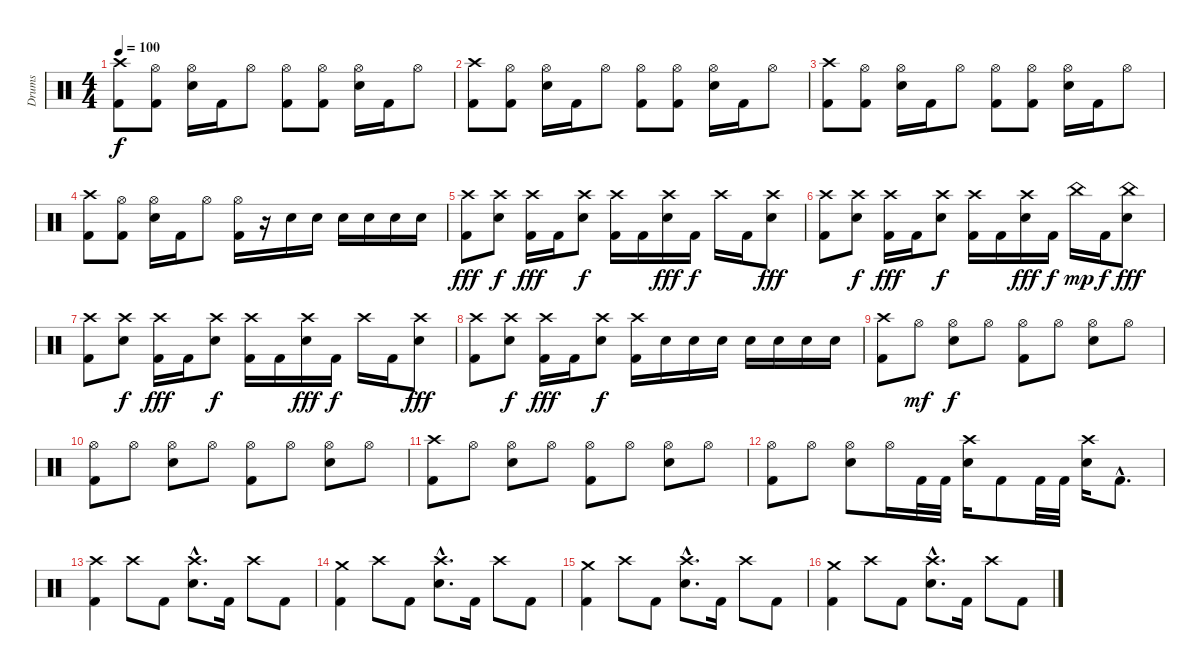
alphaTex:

\track ("Drums" "Drums") {instrument percussion}
\staff {score}
\articulation defaults
\ts (4 4)
\tempo 100
\clef neutral
\ks c
("Crash high (hit)" "Kick (hit) 2").8{dy f} ("Hi-Hat (open)" "Kick (hit) 2").8 ("Hi-Hat (open)" "Snare (hit) 2").16 "Kick (hit) 2".16 "Hi-Hat (open)".8 ("Hi-Hat (open)" "Kick (hit) 2").8 ("Hi-Hat (open)" "Kick (hit) 2").8 ("Hi-Hat (open)" "Snare (hit) 2").16 "Kick (hit) 2".16 "Hi-Hat (open)".8 |
("Crash high (hit)" "Kick (hit) 2").8 ("Hi-Hat (open)" "Kick (hit) 2").8 ("Hi-Hat (open)" "Snare (hit) 2").16 "Kick (hit) 2".16 "Hi-Hat (open)".8 ("Hi-Hat (open)" "Kick (hit) 2").8 ("Hi-Hat (open)" "Kick (hit) 2").8 ("Hi-Hat (open)" "Snare (hit) 2").16 "Kick (hit) 2".16 "Hi-Hat (open)".8 |
("Crash high (hit)" "Kick (hit) 2").8 ("Hi-Hat (open)" "Kick (hit) 2").8 ("Hi-Hat (open)" "Snare (hit) 2").16 "Kick (hit) 2".16 "Hi-Hat (open)".8 ("Hi-Hat (open)" "Kick (hit) 2").8 ("Hi-Hat (open)" "Kick (hit) 2").8 ("Hi-Hat (open)" "Snare (hit) 2").16 "Kick (hit) 2".16 "Hi-Hat (open)".8 |
("Crash high (hit)" "Kick (hit) 2").8 ("Hi-Hat (open)" "Kick (hit) 2").8 ("Hi-Hat (open)" "Snare (hit) 2").16 "Kick (hit) 2".16 "Hi-Hat (open)".8 ("Hi-Hat (open)" "Kick (hit) 2").16 r.16 "Snare (hit) 2".16 "Snare (hit) 2".16 "Snare (hit) 2".16 "Snare (hit) 2".16 "Snare (hit) 2".16 "Snare (hit) 2".16 |
("Crash high (hit)" "Kick (hit) 2").8{dy fff} ("Crash high (hit)" "Snare (hit) 2").8{dy f} ("Crash high (hit)" "Kick (hit) 2").16{dy fff} "Kick (hit) 2".16 ("Crash high (hit)" "Snare (hit) 2").8{dy f} ("Crash high (hit)" "Kick (hit) 2").16 "Kick (hit) 2".16 ("Crash high (hit)" "Snare (hit) 2").16{dy fff} "Kick (hit) 2".16{dy f} "Crash high (hit)".16 "Kick (hit) 2".16 ("Crash high (hit)" "Snare (hit) 2").8{dy fff} |
("Crash high (hit)" "Kick (hit) 2").8 ("Crash high (hit)" "Snare (hit) 2").8{dy f} ("Crash high (hit)" "Kick (hit) 2").16{dy fff} "Kick (hit) 2".16 ("Crash high (hit)" "Snare (hit) 2").8{dy f} ("Crash high (hit)" "Kick (hit) 2").16 "Kick (hit) 2".16 ("Crash high (hit)" "Snare (hit) 2").16{dy fff} "Kick (hit) 2".16{dy f} "China (hit)".16{dy mp} "Kick (hit) 2".16{dy f} ("China (hit)" "Snare (hit) 2").8{dy fff} |
("Crash high (hit)" "Kick (hit) 2").8 ("Crash high (hit)" "Snare (hit) 2").8{dy f} ("Crash high (hit)" "Kick (hit) 2").16{dy fff} "Kick (hit) 2".16 ("Crash high (hit)" "Snare (hit) 2").8{dy f} ("Crash high (hit)" "Kick (hit) 2").16 "Kick (hit) 2".16 ("Crash high (hit)" "Snare (hit) 2").16{dy fff} "Kick (hit) 2".16{dy f} "Crash high (hit)".16 "Kick (hit) 2".16 ("Crash high (hit)" "Snare (hit) 2").8{dy fff} |
("Crash high (hit)" "Kick (hit) 2").8 ("Crash high (hit)" "Snare (hit) 2").8{dy f} ("Crash high (hit)" "Kick (hit) 2").16{dy fff} "Kick (hit) 2".16 ("Crash high (hit)" "Snare (hit) 2").8{dy f} ("Crash high (hit)" "Kick (hit) 2").16 "Snare (hit) 2".16 "Snare (hit) 2".16 "Snare (hit) 2".16 "Snare (hit) 2".16 "Snare (hit) 2".16 "Snare (hit) 2".16 "Snare (hit) 2".16 |
("Crash high (hit)" "Kick (hit) 2").8 "Hi-Hat (open)".8{dy mf} ("Hi-Hat (open)" "Snare (hit) 2").8{dy f} "Hi-Hat (open)".8 ("Hi-Hat (open)" "Kick (hit) 2").8 "Hi-Hat (open)".8 ("Hi-Hat (open)" "Snare (hit) 2").8 "Hi-Hat (open)".8 |
("Hi-Hat (open)" "Kick (hit) 2").8 "Hi-Hat (open)".8 ("Hi-Hat (open)" "Snare (hit) 2").8 "Hi-Hat (open)".8 ("Hi-Hat (open)" "Kick (hit) 2").8 "Hi-Hat (open)".8 ("Hi-Hat (open)" "Snare (hit) 2").8 "Hi-Hat (open)".8 |
("Crash high (hit)" "Kick (hit) 2").8 "Hi-Hat (open)".8 ("Hi-Hat (open)" "Snare (hit) 2").8 "Hi-Hat (open)".8 ("Hi-Hat (open)" "Kick (hit) 2").8 "Hi-Hat (open)".8 ("Hi-Hat (open)" "Snare (hit) 2").8 "Hi-Hat (open)".8 |
("Hi-Hat (open)" "Kick (hit) 2").8 "Hi-Hat (open)".8 ("Hi-Hat (open)" "Snare (hit) 2").8 "Hi-Hat (open)".16 "Kick (hit) 2".32 "Kick (hit) 2".32 ("Crash high (hit)" "Snare (hit) 2").16 "Kick (hit) 2".8 "Kick (hit) 2".32 "Kick (hit) 2".32 ("Crash high (hit)" "Snare (hit) 2").16 "Kick (hit) 2"{hac}.8{d} |
("Crash high (hit)" "Kick (hit) 2").4 "Crash high (hit)".8 "Kick (hit) 2".8 ("Crash high (hit)"{hac} "Snare (hit) 2"{hac}).8{d} "Kick (hit) 2".16 "Crash high (hit)".8 "Kick (hit) 2".8 |
("Crash medium (hit)" "Kick (hit) 2").4 "Crash high (hit)".8 "Kick (hit) 2".8 ("Crash high (hit)"{hac} "Snare (hit) 2"{hac}).8{d} "Kick (hit) 2".16 "Crash high (hit)".8 "Kick (hit) 2".8 |
("Crash medium (hit)" "Kick (hit) 2").4 "Crash high (hit)".8 "Kick (hit) 2".8 ("Crash high (hit)"{hac} "Snare (hit) 2"{hac}).8{d} "Kick (hit) 2".16 "Crash high (hit)".8 "Kick (hit) 2".8 |
("Crash medium (hit)" "Kick (hit) 2").4 "Crash high (hit)".8 "Kick (hit) 2".8 ("Crash high (hit)"{hac} "Snare (hit) 2"{hac}).8{d} "Kick (hit) 2".16 "Crash high (hit)".8 "Kick (hit) 2".8
